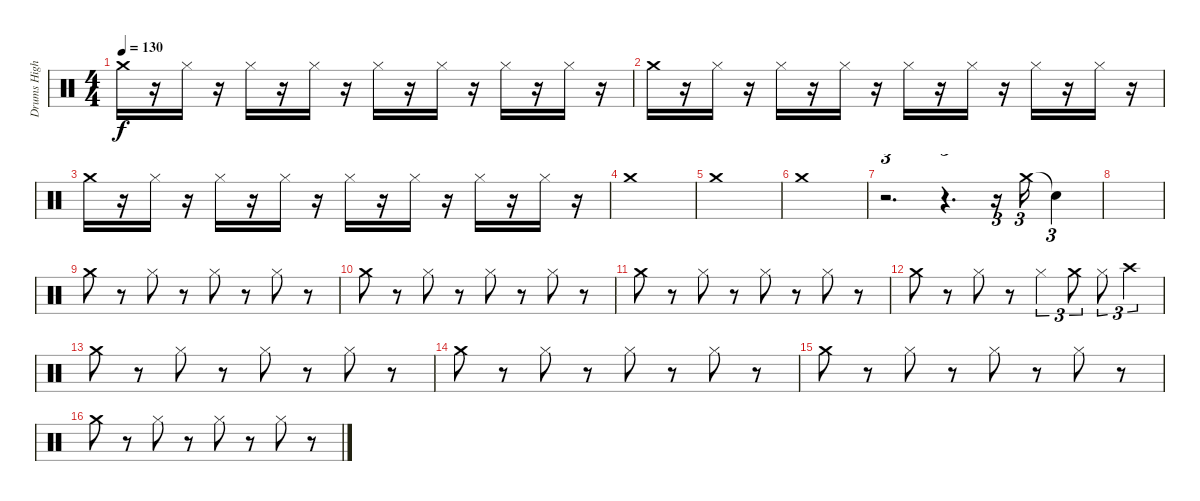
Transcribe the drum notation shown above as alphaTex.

\track ("Drums High" "Drums High") {instrument percussion}
\staff {score}
\articulation defaults
\ts (4 4)
\tempo 130
\clef neutral
\ks c "Crash medium (hit)".16{dy f}
r.16 "Hi-Hat (closed)".16 r.16 "Hi-Hat (closed)".16 r.16 "Hi-Hat (closed)".16 r.16 "Hi-Hat (closed)".16 r.16 "Hi-Hat (closed)".16 r.16 "Hi-Hat (closed)".16 r.16 "Hi-Hat (closed)".16 r.16 |
"Crash medium (hit)".16 r.16 "Hi-Hat (closed)".16 r.16 "Hi-Hat (closed)".16 r.16 "Hi-Hat (closed)".16 r.16 "Hi-Hat (closed)".16 r.16 "Hi-Hat (closed)".16 r.16 "Hi-Hat (closed)".16 r.16 "Hi-Hat (closed)".16 r.16 |
"Crash medium (hit)".16 r.16 "Hi-Hat (closed)".16 r.16 "Hi-Hat (closed)".16 r.16 "Hi-Hat (closed)".16 r.16 "Hi-Hat (closed)".16 r.16 "Hi-Hat (closed)".16 r.16 "Hi-Hat (closed)".16 r.16 "Hi-Hat (closed)".16 r.16 |
"Crash medium (hit)".1 |
"Crash medium (hit)".1 |
"Crash medium (hit)".1 |
r.2{d tu (3 2)} r.4{d tu (3 2)} r.16{tu (3 2)} "Crash medium (hit)".16{tu (3 2)} "Snare (hit)"{t}.4{tu (3 2)} |
|
"Crash medium (hit)".8 r.8 "Hi-Hat (closed)".8 r.8 "Hi-Hat (closed)".8 r.8 "Hi-Hat (closed)".8 r.8 |
"Crash medium (hit)".8 r.8 "Hi-Hat (closed)".8 r.8 "Hi-Hat (closed)".8 r.8 "Hi-Hat (closed)".8 r.8 |
"Crash medium (hit)".8 r.8 "Hi-Hat (closed)".8 r.8 "Hi-Hat (closed)".8 r.8 "Hi-Hat (closed)".8 r.8 |
"Crash medium (hit)".8 r.8 "Hi-Hat (closed)".8 r.8 "Hi-Hat (closed)".4{tu (3 2)} "Crash medium (hit)".8{tu (3 2)} "Hi-Hat (closed)".8{tu (3 2)} "Crash high (hit)".4{tu (3 2)} |
"Crash medium (hit)".8 r.8 "Hi-Hat (closed)".8 r.8 "Hi-Hat (closed)".8 r.8 "Hi-Hat (closed)".8 r.8 |
"Crash medium (hit)".8 r.8 "Hi-Hat (closed)".8 r.8 "Hi-Hat (closed)".8 r.8 "Hi-Hat (closed)".8 r.8 |
"Crash medium (hit)".8 r.8 "Hi-Hat (closed)".8 r.8 "Hi-Hat (closed)".8 r.8 "Hi-Hat (closed)".8 r.8 |
"Crash medium (hit)".8 r.8 "Hi-Hat (closed)".8 r.8 "Hi-Hat (closed)".8 r.8 "Hi-Hat (closed)".8 r.8
